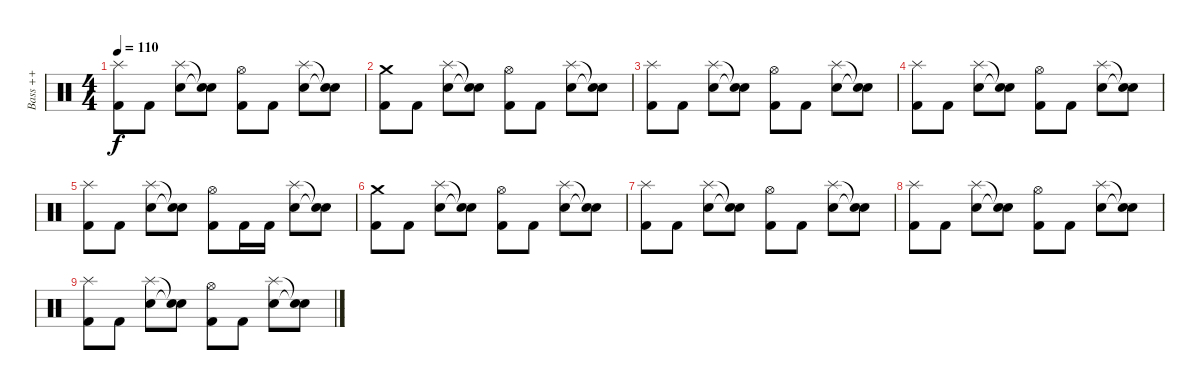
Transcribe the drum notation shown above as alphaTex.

\track ("  Bass ++" "  Bass ++") {instrument percussion}
\staff {score}
\articulation defaults
\ts (4 4)
\tempo 110
\clef neutral
\ks c
("Splash (hit)" "Kick (hit) 2").8{dy f} "Kick (hit) 2".8 ("Splash (hit)" "Snare (hit) 2").8 ("Snare (hit)"{t} "Snare (hit)"{t}).8 ("Hi-Hat (open)" "Kick (hit) 2").8 "Kick (hit) 2".8 ("Splash (hit)" "Snare (hit) 2").8 ("Snare (hit)"{t} "Snare (hit)"{t}).8 |
("Crash medium (hit)" "Kick (hit) 2").8 "Kick (hit) 2".8 ("Splash (hit)" "Snare (hit) 2").8 ("Snare (hit)"{t} "Snare (hit)"{t}).8 ("Hi-Hat (open)" "Kick (hit) 2").8 "Kick (hit) 2".8 ("Splash (hit)" "Snare (hit) 2").8 ("Snare (hit)"{t} "Snare (hit)"{t}).8 |
("Splash (hit)" "Kick (hit) 2").8 "Kick (hit) 2".8 ("Splash (hit)" "Snare (hit) 2").8 ("Snare (hit)"{t} "Snare (hit)"{t}).8 ("Hi-Hat (open)" "Kick (hit) 2").8 "Kick (hit) 2".8 ("Splash (hit)" "Snare (hit) 2").8 ("Snare (hit)"{t} "Snare (hit)"{t}).8 |
("Splash (hit)" "Kick (hit) 2").8 "Kick (hit) 2".8 ("Splash (hit)" "Snare (hit) 2").8 ("Snare (hit)"{t} "Snare (hit)"{t}).8 ("Hi-Hat (open)" "Kick (hit) 2").8 "Kick (hit) 2".8 ("Splash (hit)" "Snare (hit) 2").8 ("Snare (hit)"{t} "Snare (hit)"{t}).8 |
("Splash (hit)" "Kick (hit) 2").8 "Kick (hit) 2".8 ("Splash (hit)" "Snare (hit) 2").8 ("Snare (hit)"{t} "Snare (hit)"{t}).8 ("Hi-Hat (open)" "Kick (hit) 2").8 "Kick (hit) 2".16 "Kick (hit) 2".16 ("Splash (hit)" "Snare (hit) 2").8 ("Snare (hit)"{t} "Snare (hit)"{t}).8 |
("Crash medium (hit)" "Kick (hit) 2").8 "Kick (hit) 2".8 ("Splash (hit)" "Snare (hit) 2").8 ("Snare (hit)"{t} "Snare (hit)"{t}).8 ("Hi-Hat (open)" "Kick (hit) 2").8 "Kick (hit) 2".8 ("Splash (hit)" "Snare (hit) 2").8 ("Snare (hit)"{t} "Snare (hit)"{t}).8 |
("Splash (hit)" "Kick (hit) 2").8 "Kick (hit) 2".8 ("Splash (hit)" "Snare (hit) 2").8 ("Snare (hit)"{t} "Snare (hit)"{t}).8 ("Hi-Hat (open)" "Kick (hit) 2").8 "Kick (hit) 2".8 ("Splash (hit)" "Snare (hit) 2").8 ("Snare (hit)"{t} "Snare (hit)"{t}).8 |
("Splash (hit)" "Kick (hit) 2").8 "Kick (hit) 2".8 ("Splash (hit)" "Snare (hit) 2").8 ("Snare (hit)"{t} "Snare (hit)"{t}).8 ("Hi-Hat (open)" "Kick (hit) 2").8 "Kick (hit) 2".8 ("Splash (hit)" "Snare (hit) 2").8 ("Snare (hit)"{t} "Snare (hit)"{t}).8 |
("Splash (hit)" "Kick (hit) 2").8 "Kick (hit) 2".8 ("Splash (hit)" "Snare (hit) 2").8 ("Snare (hit)"{t} "Snare (hit)"{t}).8 ("Hi-Hat (open)" "Kick (hit) 2").8 "Kick (hit) 2".8 ("Splash (hit)" "Snare (hit) 2").8 ("Snare (hit)"{t} "Snare (hit)"{t}).8
